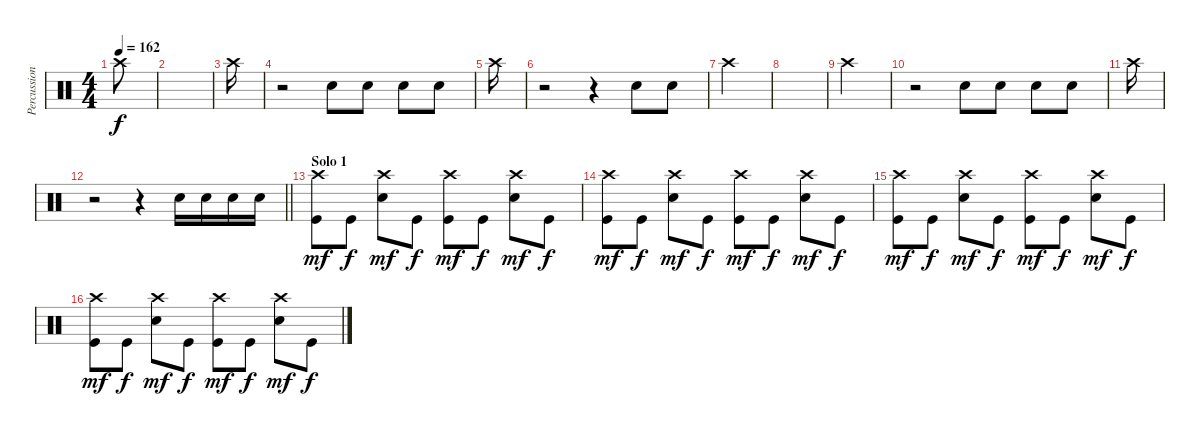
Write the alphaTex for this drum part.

\track ("Percussions" "Percussion") {instrument percussion}
\staff {score}
\articulation defaults
\ts (4 4)
\tempo 162
\clef neutral
\ks c "Crash high (hit)".8{dy f}
|
|
"Crash high (hit)".16 |
r.2 "Electric Snare (hit)".8 "Electric Snare (hit)".8 "Electric Snare (hit)".8 "Electric Snare (hit)".8 |
"Crash high (hit)".16 |
r.2 r.4 "Electric Snare (hit)".8 "Electric Snare (hit)".8 |
"Crash high (hit)".4 |
|
"Crash high (hit)".4 |
r.2 "Electric Snare (hit)".8 "Electric Snare (hit)".8 "Electric Snare (hit)".8 "Electric Snare (hit)".8 |
"Crash high (hit)".16 |
\barLineRight lightlight
r.2 r.4 "Snare (hit) 2".16 "Snare (hit) 2".16 "Snare (hit) 2".16 "Snare (hit) 2".16 |
\section ("" "Solo 1")
("Crash high (hit)" "Kick (hit)").8{dy mf} "Kick (hit)".8{dy f} ("Crash high (hit)" "Electric Snare (hit)").8{dy mf} "Kick (hit)".8{dy f} ("Crash high (hit)" "Kick (hit)").8{dy mf} "Kick (hit)".8{dy f} ("Crash high (hit)" "Electric Snare (hit)").8{dy mf} "Kick (hit)".8{dy f} |
("Crash high (hit)" "Kick (hit)").8{dy mf} "Kick (hit)".8{dy f} ("Crash high (hit)" "Electric Snare (hit)").8{dy mf} "Kick (hit)".8{dy f} ("Crash high (hit)" "Kick (hit)").8{dy mf} "Kick (hit)".8{dy f} ("Crash high (hit)" "Electric Snare (hit)").8{dy mf} "Kick (hit)".8{dy f} |
("Crash high (hit)" "Kick (hit)").8{dy mf} "Kick (hit)".8{dy f} ("Crash high (hit)" "Electric Snare (hit)").8{dy mf} "Kick (hit)".8{dy f} ("Crash high (hit)" "Kick (hit)").8{dy mf} "Kick (hit)".8{dy f} ("Crash high (hit)" "Electric Snare (hit)").8{dy mf} "Kick (hit)".8{dy f} |
("Crash high (hit)" "Kick (hit)").8{dy mf} "Kick (hit)".8{dy f} ("Crash high (hit)" "Electric Snare (hit)").8{dy mf} "Kick (hit)".8{dy f} ("Crash high (hit)" "Kick (hit)").8{dy mf} "Kick (hit)".8{dy f} ("Crash high (hit)" "Electric Snare (hit)").8{dy mf} "Kick (hit)".8{dy f}
